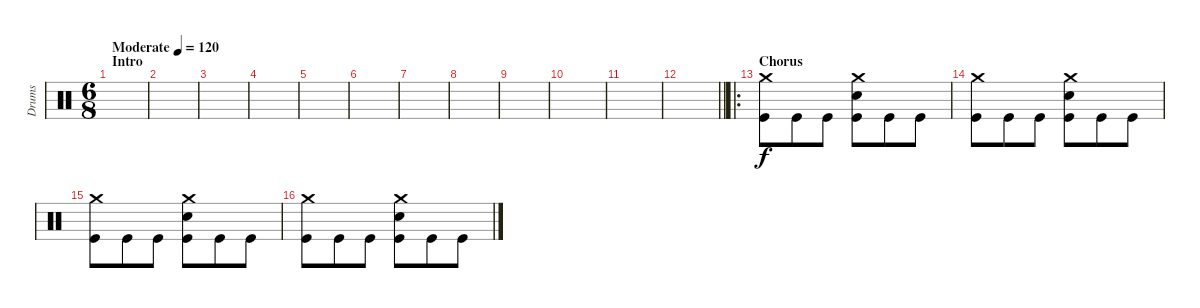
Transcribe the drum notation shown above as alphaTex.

\track ("Drums" "Drums") {instrument percussion}
\staff {score}
\articulation defaults
\ts (6 8)
\section ("" "Intro")
\tempo (120 "Moderate")
\clef neutral
\ks c
|
|
|
|
|
|
|
|
|
|
|
\barLineRight lightlight
|
\ro
\section ("" "Chorus")
("Crash medium (hit)" "Kick (hit)").8 "Kick (hit)".8 "Kick (hit)".8 ("Crash medium (hit)" "Snare (hit) 2" "Kick (hit)").8 "Kick (hit)".8 "Kick (hit)".8 |
("Crash medium (hit)" "Kick (hit)").8 "Kick (hit)".8 "Kick (hit)".8 ("Crash medium (hit)" "Snare (hit) 2" "Kick (hit)").8 "Kick (hit)".8 "Kick (hit)".8 |
("Crash medium (hit)" "Kick (hit)").8 "Kick (hit)".8 "Kick (hit)".8 ("Crash medium (hit)" "Snare (hit) 2" "Kick (hit)").8 "Kick (hit)".8 "Kick (hit)".8 |
("Crash medium (hit)" "Kick (hit)").8 "Kick (hit)".8 "Kick (hit)".8 ("Crash medium (hit)" "Snare (hit) 2" "Kick (hit)").8 "Kick (hit)".8 "Kick (hit)".8
